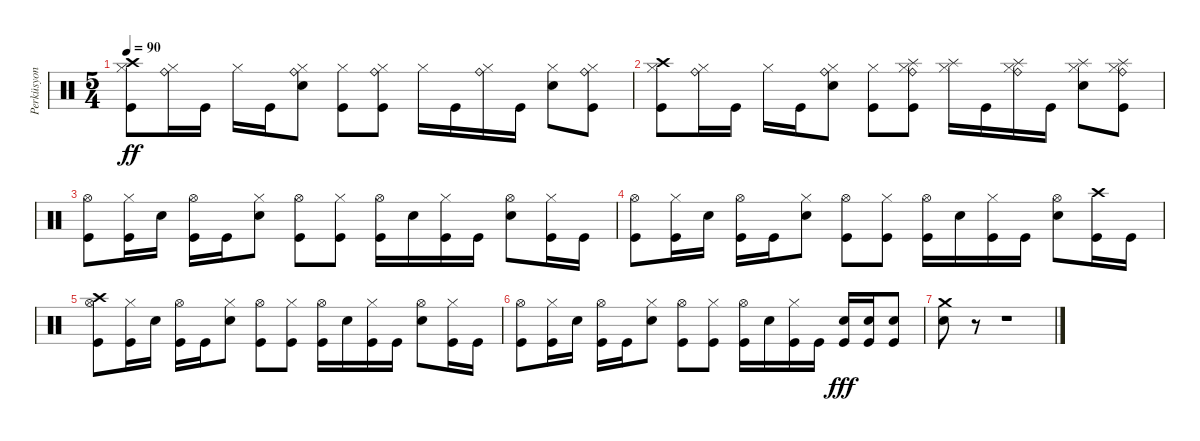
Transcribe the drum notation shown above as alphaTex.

\track ("Perküsyon" "Perküsyon") {instrument percussion}
\staff {score}
\articulation defaults
\ts (5 4)
\tempo 90
\clef neutral
\ks c
("Hi-Hat (closed)" "Crash high (hit)" "Kick (hit)").8{dy ff} ("Ride (bell)" "Hi-Hat (closed)").16 "Kick (hit)".16 "Hi-Hat (closed)".16 "Kick (hit)".16 ("Electric Snare (hit)" "Ride (bell)" "Hi-Hat (closed)").8 ("Hi-Hat (closed)" "Kick (hit)").8 ("Ride (bell)" "Hi-Hat (closed)" "Kick (hit)").8 "Hi-Hat (closed)".16 "Kick (hit)".16 ("Ride (bell)" "Hi-Hat (closed)").16 "Kick (hit)".16 ("Electric Snare (hit)" "Hi-Hat (closed)").8 ("Ride (bell)" "Hi-Hat (closed)" "Kick (hit)").8 |
("Hi-Hat (closed)" "Crash high (hit)" "Kick (hit)").8 ("Ride (bell)" "Hi-Hat (closed)").16 "Kick (hit)".16 "Hi-Hat (closed)".16 "Kick (hit)".16 ("Electric Snare (hit)" "Ride (bell)" "Hi-Hat (closed)").8 ("Hi-Hat (closed)" "Kick (hit)").8 ("Ride (bell)" "Hi-Hat (closed)" "Splash (hit)" "Kick (hit)").8 ("Hi-Hat (closed)" "Splash (hit)").16 "Kick (hit)".16 ("Ride (bell)" "Hi-Hat (closed)" "Splash (hit)").16 "Kick (hit)".16 ("Electric Snare (hit)" "Hi-Hat (closed)" "Splash (hit)").8 ("Ride (bell)" "Hi-Hat (closed)" "Splash (hit)" "Kick (hit)").8 |
("Hi-Hat (open)" "Kick (hit)").8 ("Hi-Hat (closed)" "Kick (hit)").16 "Electric Snare (hit)".16 ("Hi-Hat (open)" "Kick (hit)").16 "Kick (hit)".16 ("Electric Snare (hit)" "Hi-Hat (closed)").8 ("Hi-Hat (open)" "Kick (hit)").8 ("Hi-Hat (closed)" "Kick (hit)").8 ("Hi-Hat (open)" "Kick (hit)").16 "Electric Snare (hit)".16 ("Hi-Hat (closed)" "Kick (hit)").16 "Kick (hit)".16 ("Hi-Hat (open)" "Electric Snare (hit)").8 ("Hi-Hat (closed)" "Kick (hit)").16 "Kick (hit)".16 |
("Hi-Hat (open)" "Kick (hit)").8 ("Hi-Hat (closed)" "Kick (hit)").16 "Electric Snare (hit)".16 ("Hi-Hat (open)" "Kick (hit)").16 "Kick (hit)".16 ("Electric Snare (hit)" "Hi-Hat (closed)").8 ("Hi-Hat (open)" "Kick (hit)").8 ("Hi-Hat (closed)" "Kick (hit)").8 ("Hi-Hat (open)" "Kick (hit)").16 "Electric Snare (hit)".16 ("Hi-Hat (closed)" "Kick (hit)").16 "Kick (hit)".16 ("Hi-Hat (open)" "Electric Snare (hit)").8 ("Crash high (hit)" "Kick (hit)").16 "Kick (hit)".16 |
("Hi-Hat (open)" "Crash high (hit)" "Kick (hit)").8 ("Hi-Hat (closed)" "Kick (hit)").16 "Electric Snare (hit)".16 ("Hi-Hat (open)" "Kick (hit)").16 "Kick (hit)".16 ("Electric Snare (hit)" "Hi-Hat (closed)").8 ("Hi-Hat (open)" "Kick (hit)").8 ("Hi-Hat (closed)" "Kick (hit)").8 ("Hi-Hat (open)" "Kick (hit)").16 "Electric Snare (hit)".16 ("Hi-Hat (closed)" "Kick (hit)").16 "Kick (hit)".16 ("Hi-Hat (open)" "Electric Snare (hit)").8 ("Hi-Hat (closed)" "Kick (hit)").16 "Kick (hit)".16 |
("Hi-Hat (open)" "Kick (hit)").8 ("Hi-Hat (closed)" "Kick (hit)").16 "Electric Snare (hit)".16 ("Hi-Hat (open)" "Kick (hit)").16 "Kick (hit)".16 ("Electric Snare (hit)" "Hi-Hat (closed)").8 ("Hi-Hat (open)" "Kick (hit)").8 ("Hi-Hat (closed)" "Kick (hit)").8 ("Hi-Hat (open)" "Kick (hit)").16 "Electric Snare (hit)".16 ("Hi-Hat (closed)" "Kick (hit)").16 "Kick (hit)".16 ("Electric Snare (hit)" "Kick (hit)").16{dy fff} ("Electric Snare (hit)" "Kick (hit)").16 ("Electric Snare (hit)" "Kick (hit)").8 |
("Electric Snare (hit)" "Crash medium (hit)").8 r.8 r.1
